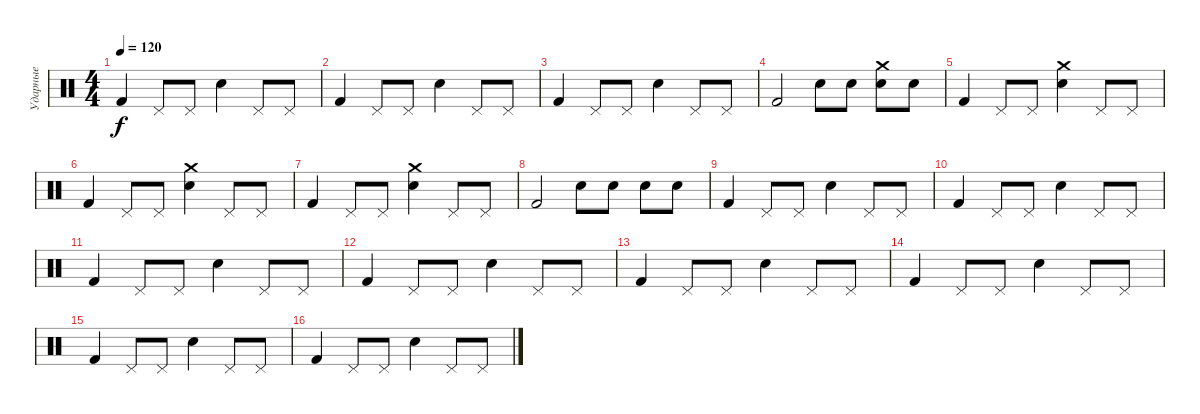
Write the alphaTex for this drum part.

\track ("Ударные" "Ударные") {instrument percussion}
\staff {score}
\articulation defaults
\ts (4 4)
\tempo 120
\clef neutral
\ks c "Kick (hit) 2".4{dy f} "Pedal Hi-Hat (hit)".8 "Pedal Hi-Hat (hit)".8 "Snare (hit) 2".4 "Pedal Hi-Hat (hit)".8 "Pedal Hi-Hat (hit)".8
|
"Kick (hit) 2".4 "Pedal Hi-Hat (hit)".8 "Pedal Hi-Hat (hit)".8 "Snare (hit) 2".4 "Pedal Hi-Hat (hit)".8 "Pedal Hi-Hat (hit)".8 |
"Kick (hit) 2".4 "Pedal Hi-Hat (hit)".8 "Pedal Hi-Hat (hit)".8 "Snare (hit) 2".4 "Pedal Hi-Hat (hit)".8 "Pedal Hi-Hat (hit)".8 |
"Kick (hit) 2".2 "Snare (hit) 2".8 "Snare (hit) 2".8 ("Crash medium (hit)" "Snare (hit) 2").8 "Snare (hit) 2".8 |
"Kick (hit) 2".4 "Pedal Hi-Hat (hit)".8 "Pedal Hi-Hat (hit)".8 ("Crash medium (hit)" "Snare (hit) 2").4 "Pedal Hi-Hat (hit)".8 "Pedal Hi-Hat (hit)".8 |
"Kick (hit) 2".4 "Pedal Hi-Hat (hit)".8 "Pedal Hi-Hat (hit)".8 ("Crash medium (hit)" "Snare (hit) 2").4 "Pedal Hi-Hat (hit)".8 "Pedal Hi-Hat (hit)".8 |
"Kick (hit) 2".4 "Pedal Hi-Hat (hit)".8 "Pedal Hi-Hat (hit)".8 ("Crash medium (hit)" "Snare (hit) 2").4 "Pedal Hi-Hat (hit)".8 "Pedal Hi-Hat (hit)".8 |
"Kick (hit) 2".2 "Snare (hit) 2".8 "Snare (hit) 2".8 "Snare (hit) 2".8 "Snare (hit) 2".8 |
"Kick (hit) 2".4 "Pedal Hi-Hat (hit)".8 "Pedal Hi-Hat (hit)".8 "Snare (hit) 2".4 "Pedal Hi-Hat (hit)".8 "Pedal Hi-Hat (hit)".8 |
"Kick (hit) 2".4 "Pedal Hi-Hat (hit)".8 "Pedal Hi-Hat (hit)".8 "Snare (hit) 2".4 "Pedal Hi-Hat (hit)".8 "Pedal Hi-Hat (hit)".8 |
"Kick (hit) 2".4 "Pedal Hi-Hat (hit)".8 "Pedal Hi-Hat (hit)".8 "Snare (hit) 2".4 "Pedal Hi-Hat (hit)".8 "Pedal Hi-Hat (hit)".8 |
"Kick (hit) 2".4 "Pedal Hi-Hat (hit)".8 "Pedal Hi-Hat (hit)".8 "Snare (hit) 2".4 "Pedal Hi-Hat (hit)".8 "Pedal Hi-Hat (hit)".8 |
"Kick (hit) 2".4 "Pedal Hi-Hat (hit)".8 "Pedal Hi-Hat (hit)".8 "Snare (hit) 2".4 "Pedal Hi-Hat (hit)".8 "Pedal Hi-Hat (hit)".8 |
"Kick (hit) 2".4 "Pedal Hi-Hat (hit)".8 "Pedal Hi-Hat (hit)".8 "Snare (hit) 2".4 "Pedal Hi-Hat (hit)".8 "Pedal Hi-Hat (hit)".8 |
"Kick (hit) 2".4 "Pedal Hi-Hat (hit)".8 "Pedal Hi-Hat (hit)".8 "Snare (hit) 2".4 "Pedal Hi-Hat (hit)".8 "Pedal Hi-Hat (hit)".8 |
"Kick (hit) 2".4 "Pedal Hi-Hat (hit)".8 "Pedal Hi-Hat (hit)".8 "Snare (hit) 2".4 "Pedal Hi-Hat (hit)".8 "Pedal Hi-Hat (hit)".8
